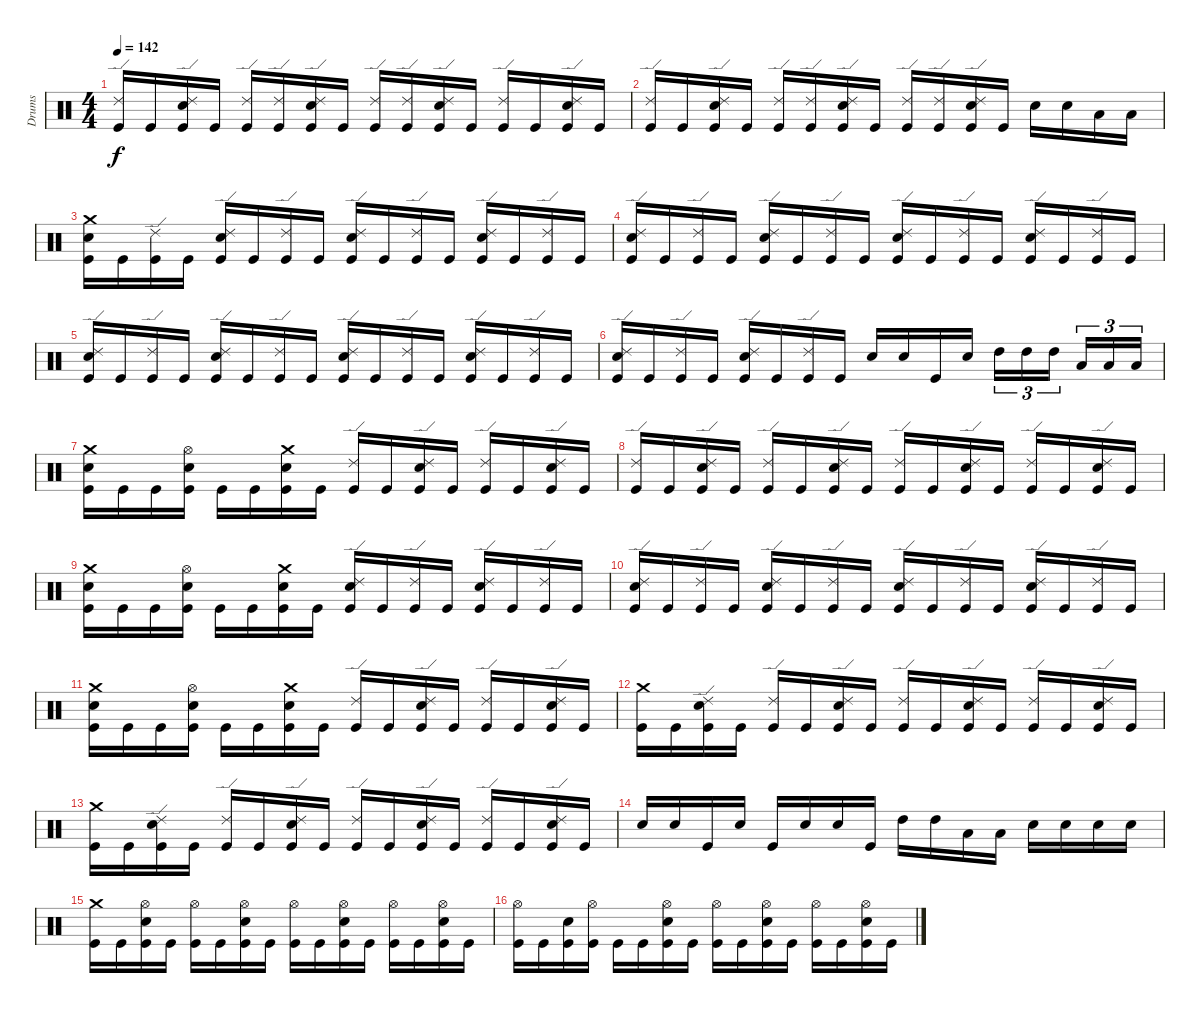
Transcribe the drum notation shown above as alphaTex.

\track ("Drums" "Drums") {instrument percussion}
\staff {score}
\articulation defaults
\ts (4 4)
\tempo 142
\clef neutral
\ks c
("Ride (edge) 2" "Kick (hit)").16{dy f} "Kick (hit)".16 ("Ride (edge) 2" "Electric Snare (hit)" "Kick (hit)").16 "Kick (hit)".16 ("Ride (edge) 2" "Kick (hit)").16 ("Ride (edge) 2" "Kick (hit)").16 ("Ride (edge) 2" "Electric Snare (hit)" "Kick (hit)").16 "Kick (hit)".16 ("Ride (edge) 2" "Kick (hit)").16 ("Ride (edge) 2" "Kick (hit)").16 ("Ride (edge) 2" "Electric Snare (hit)" "Kick (hit)").16 "Kick (hit)".16 ("Ride (edge) 2" "Kick (hit)").16 "Kick (hit)".16 ("Ride (edge) 2" "Electric Snare (hit)" "Kick (hit)").16 "Kick (hit)".16 |
("Ride (edge) 2" "Kick (hit)").16 "Kick (hit)".16 ("Ride (edge) 2" "Electric Snare (hit)" "Kick (hit)").16 "Kick (hit)".16 ("Ride (edge) 2" "Kick (hit)").16 ("Ride (edge) 2" "Kick (hit)").16 ("Ride (edge) 2" "Electric Snare (hit)" "Kick (hit)").16 "Kick (hit)".16 ("Ride (edge) 2" "Kick (hit)").16 ("Ride (edge) 2" "Kick (hit)").16 ("Ride (edge) 2" "Electric Snare (hit)" "Kick (hit)").16 "Kick (hit)".16 "Electric Snare (hit)".16 "Electric Snare (hit)".16 "Low Tom (hit)".16 "Low Tom (hit)".16 |
("Electric Snare (hit)" "Crash medium (hit)" "Kick (hit)").16 "Kick (hit)".16 ("Ride (edge) 2" "Kick (hit)").16 "Kick (hit)".16 ("Electric Snare (hit)" "Ride (edge) 2" "Kick (hit)").16 "Kick (hit)".16 ("Ride (edge) 2" "Kick (hit)").16 "Kick (hit)".16 ("Electric Snare (hit)" "Ride (edge) 2" "Kick (hit)").16 "Kick (hit)".16 ("Ride (edge) 2" "Kick (hit)").16 "Kick (hit)".16 ("Electric Snare (hit)" "Ride (edge) 2" "Kick (hit)").16 "Kick (hit)".16 ("Ride (edge) 2" "Kick (hit)").16 "Kick (hit)".16 |
("Electric Snare (hit)" "Ride (edge) 2" "Kick (hit)").16 "Kick (hit)".16 ("Ride (edge) 2" "Kick (hit)").16 "Kick (hit)".16 ("Electric Snare (hit)" "Ride (edge) 2" "Kick (hit)").16 "Kick (hit)".16 ("Ride (edge) 2" "Kick (hit)").16 "Kick (hit)".16 ("Electric Snare (hit)" "Ride (edge) 2" "Kick (hit)").16 "Kick (hit)".16 ("Ride (edge) 2" "Kick (hit)").16 "Kick (hit)".16 ("Electric Snare (hit)" "Ride (edge) 2" "Kick (hit)").16 "Kick (hit)".16 ("Ride (edge) 2" "Kick (hit)").16 "Kick (hit)".16 |
("Electric Snare (hit)" "Ride (edge) 2" "Kick (hit)").16 "Kick (hit)".16 ("Ride (edge) 2" "Kick (hit)").16 "Kick (hit)".16 ("Electric Snare (hit)" "Ride (edge) 2" "Kick (hit)").16 "Kick (hit)".16 ("Ride (edge) 2" "Kick (hit)").16 "Kick (hit)".16 ("Electric Snare (hit)" "Ride (edge) 2" "Kick (hit)").16 "Kick (hit)".16 ("Ride (edge) 2" "Kick (hit)").16 "Kick (hit)".16 ("Electric Snare (hit)" "Ride (edge) 2" "Kick (hit)").16 "Kick (hit)".16 ("Ride (edge) 2" "Kick (hit)").16 "Kick (hit)".16 |
("Electric Snare (hit)" "Ride (edge) 2" "Kick (hit)").16 "Kick (hit)".16 ("Ride (edge) 2" "Kick (hit)").16 "Kick (hit)".16 ("Electric Snare (hit)" "Ride (edge) 2" "Kick (hit)").16 "Kick (hit)".16 ("Ride (edge) 2" "Kick (hit)").16 "Kick (hit)".16 "Electric Snare (hit)".16 "Electric Snare (hit)".16 "Kick (hit)".16 "Electric Snare (hit)".16 "High Tom (hit)".16{tu (3 2)} "High Tom (hit)".16{tu (3 2)} "High Tom (hit)".16{tu (3 2)} "Low Tom (hit)".16{tu (3 2)} "Low Tom (hit)".16{tu (3 2)} "Low Tom (hit)".16{tu (3 2)} |
("Crash medium (hit)" "Electric Snare (hit)" "Kick (hit)").16 "Kick (hit)".16 "Kick (hit)".16 ("Hi-Hat (open)" "Electric Snare (hit)" "Kick (hit)").16 "Kick (hit)".16 "Kick (hit)".16 ("Crash medium (hit)" "Electric Snare (hit)" "Kick (hit)").16 "Kick (hit)".16 ("Kick (hit)" "Ride (edge) 2").16 "Kick (hit)".16 ("Kick (hit)" "Ride (edge) 2" "Electric Snare (hit)").16 "Kick (hit)".16 ("Kick (hit)" "Ride (edge) 2").16 "Kick (hit)".16 ("Kick (hit)" "Ride (edge) 2" "Electric Snare (hit)").16 "Kick (hit)".16 |
("Ride (edge) 2" "Kick (hit)").16 "Kick (hit)".16 ("Ride (edge) 2" "Electric Snare (hit)" "Kick (hit)").16 "Kick (hit)".16 ("Ride (edge) 2" "Kick (hit)").16 "Kick (hit)".16 ("Ride (edge) 2" "Electric Snare (hit)" "Kick (hit)").16 "Kick (hit)".16 ("Ride (edge) 2" "Kick (hit)").16 "Kick (hit)".16 ("Ride (edge) 2" "Electric Snare (hit)" "Kick (hit)").16 "Kick (hit)".16 ("Ride (edge) 2" "Kick (hit)").16 "Kick (hit)".16 ("Ride (edge) 2" "Electric Snare (hit)" "Kick (hit)").16 "Kick (hit)".16 |
("Crash medium (hit)" "Electric Snare (hit)" "Kick (hit)").16 "Kick (hit)".16 "Kick (hit)".16 ("Hi-Hat (open)" "Electric Snare (hit)" "Kick (hit)").16 "Kick (hit)".16 "Kick (hit)".16 ("Crash medium (hit)" "Electric Snare (hit)" "Kick (hit)").16 "Kick (hit)".16 ("Electric Snare (hit)" "Kick (hit)" "Ride (edge) 2").16 "Kick (hit)".16 ("Kick (hit)" "Ride (edge) 2").16 "Kick (hit)".16 ("Electric Snare (hit)" "Kick (hit)" "Ride (edge) 2").16 "Kick (hit)".16 ("Kick (hit)" "Ride (edge) 2").16 "Kick (hit)".16 |
("Electric Snare (hit)" "Ride (edge) 2" "Kick (hit)").16 "Kick (hit)".16 ("Ride (edge) 2" "Kick (hit)").16 "Kick (hit)".16 ("Electric Snare (hit)" "Ride (edge) 2" "Kick (hit)").16 "Kick (hit)".16 ("Ride (edge) 2" "Kick (hit)").16 "Kick (hit)".16 ("Electric Snare (hit)" "Ride (edge) 2" "Kick (hit)").16 "Kick (hit)".16 ("Ride (edge) 2" "Kick (hit)").16 "Kick (hit)".16 ("Electric Snare (hit)" "Ride (edge) 2" "Kick (hit)").16 "Kick (hit)".16 ("Ride (edge) 2" "Kick (hit)").16 "Kick (hit)".16 |
("Crash medium (hit)" "Electric Snare (hit)" "Kick (hit)").16 "Kick (hit)".16 "Kick (hit)".16 ("Hi-Hat (open)" "Electric Snare (hit)" "Kick (hit)").16 "Kick (hit)".16 "Kick (hit)".16 ("Crash medium (hit)" "Electric Snare (hit)" "Kick (hit)").16 "Kick (hit)".16 ("Kick (hit)" "Ride (edge) 2").16 "Kick (hit)".16 ("Kick (hit)" "Ride (edge) 2" "Electric Snare (hit)").16 "Kick (hit)".16 ("Kick (hit)" "Ride (edge) 2").16 "Kick (hit)".16 ("Kick (hit)" "Ride (edge) 2" "Electric Snare (hit)").16 "Kick (hit)".16 |
("Crash medium (hit)" "Kick (hit)").16 "Kick (hit)".16 ("Ride (edge) 2" "Electric Snare (hit)" "Kick (hit)").16 "Kick (hit)".16 ("Ride (edge) 2" "Kick (hit)").16 "Kick (hit)".16 ("Ride (edge) 2" "Electric Snare (hit)" "Kick (hit)").16 "Kick (hit)".16 ("Ride (edge) 2" "Kick (hit)").16 "Kick (hit)".16 ("Ride (edge) 2" "Electric Snare (hit)" "Kick (hit)").16 "Kick (hit)".16 ("Ride (edge) 2" "Kick (hit)").16 "Kick (hit)".16 ("Ride (edge) 2" "Electric Snare (hit)" "Kick (hit)").16 "Kick (hit)".16 |
("Crash medium (hit)" "Kick (hit)").16 "Kick (hit)".16 ("Ride (edge) 2" "Electric Snare (hit)" "Kick (hit)").16 "Kick (hit)".16 ("Ride (edge) 2" "Kick (hit)").16 "Kick (hit)".16 ("Ride (edge) 2" "Electric Snare (hit)" "Kick (hit)").16 "Kick (hit)".16 ("Ride (edge) 2" "Kick (hit)").16 "Kick (hit)".16 ("Ride (edge) 2" "Electric Snare (hit)" "Kick (hit)").16 "Kick (hit)".16 ("Ride (edge) 2" "Kick (hit)").16 "Kick (hit)".16 ("Ride (edge) 2" "Electric Snare (hit)" "Kick (hit)").16 "Kick (hit)".16 |
"Electric Snare (hit)".16 "Electric Snare (hit)".16 "Kick (hit)".16 "Electric Snare (hit)".16 "Kick (hit)".16 "Electric Snare (hit)".16 "Electric Snare (hit)".16 "Kick (hit)".16 "High Tom (hit)".16 "High Tom (hit)".16 "Low Tom (hit)".16 "Low Tom (hit)".16 "Electric Snare (hit)".16 "Electric Snare (hit)".16 "Electric Snare (hit)".16 "Electric Snare (hit)".16 |
("Crash medium (hit)" "Kick (hit)").16 "Kick (hit)".16 ("Electric Snare (hit)" "Hi-Hat (open)" "Kick (hit)").16 "Kick (hit)".16 ("Hi-Hat (open)" "Kick (hit)").16 "Kick (hit)".16 ("Electric Snare (hit)" "Hi-Hat (open)" "Kick (hit)").16 "Kick (hit)".16 ("Hi-Hat (open)" "Kick (hit)").16 "Kick (hit)".16 ("Electric Snare (hit)" "Hi-Hat (open)" "Kick (hit)").16 "Kick (hit)".16 ("Hi-Hat (open)" "Kick (hit)").16 "Kick (hit)".16 ("Electric Snare (hit)" "Hi-Hat (open)" "Kick (hit)").16 "Kick (hit)".16 |
("Hi-Hat (open)" "Kick (hit)").16 "Kick (hit)".16 ("Electric Snare (hit)" "Kick (hit)").16 ("Hi-Hat (open)" "Kick (hit)").16 "Kick (hit)".16 "Kick (hit)".16 ("Electric Snare (hit)" "Hi-Hat (open)" "Kick (hit)").16 "Kick (hit)".16 ("Hi-Hat (open)" "Kick (hit)").16 "Kick (hit)".16 ("Electric Snare (hit)" "Hi-Hat (open)" "Kick (hit)").16 "Kick (hit)".16 ("Hi-Hat (open)" "Kick (hit)").16 "Kick (hit)".16 ("Electric Snare (hit)" "Hi-Hat (open)" "Kick (hit)").16 "Kick (hit)".16
